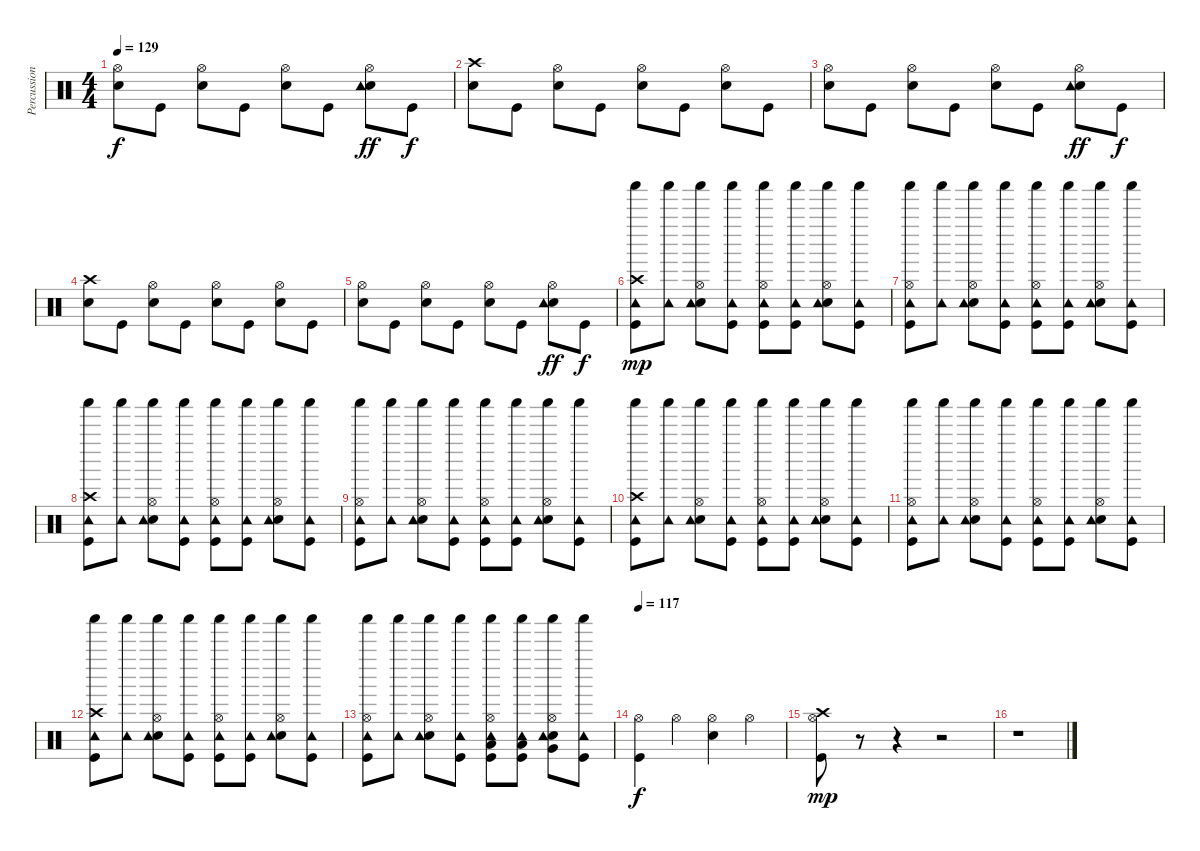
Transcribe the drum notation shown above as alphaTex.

\track ("Percussion" "Percussion") {instrument percussion}
\staff {score}
\articulation defaults
\ts (4 4)
\tempo 129
\clef neutral
\ks c
("Hi-Hat (open)" "Snare (hit) 2").8{dy f} "Kick (hit)".8 ("Hi-Hat (open)" "Snare (hit) 2").8 "Kick (hit)".8 ("Hi-Hat (open)" "Snare (hit) 2").8 "Kick (hit)".8 ("Hi-Hat (open)" "Snare (hit) 2" "Tambourine (hit)").8{dy ff} "Kick (hit)".8{dy f} |
("Crash high (hit)" "Snare (hit) 2").8 "Kick (hit)".8 ("Hi-Hat (open)" "Snare (hit) 2").8 "Kick (hit)".8 ("Hi-Hat (open)" "Snare (hit) 2").8 "Kick (hit)".8 ("Hi-Hat (open)" "Snare (hit) 2").8 "Kick (hit)".8 |
("Hi-Hat (open)" "Snare (hit) 2").8 "Kick (hit)".8 ("Hi-Hat (open)" "Snare (hit) 2").8 "Kick (hit)".8 ("Hi-Hat (open)" "Snare (hit) 2").8 "Kick (hit)".8 ("Hi-Hat (open)" "Snare (hit) 2" "Tambourine (hit)").8{dy ff} "Kick (hit)".8{dy f} |
("Crash high (hit)" "Snare (hit) 2").8 "Kick (hit)".8 ("Hi-Hat (open)" "Snare (hit) 2").8 "Kick (hit)".8 ("Hi-Hat (open)" "Snare (hit) 2").8 "Kick (hit)".8 ("Hi-Hat (open)" "Snare (hit) 2").8 "Kick (hit)".8 |
("Hi-Hat (open)" "Snare (hit) 2").8 "Kick (hit)".8 ("Hi-Hat (open)" "Snare (hit) 2").8 "Kick (hit)".8 ("Hi-Hat (open)" "Snare (hit) 2").8 "Kick (hit)".8 ("Hi-Hat (open)" "Snare (hit) 2" "Tambourine (hit)").8{dy ff} "Kick (hit)".8{dy f} |
("Crash high (hit)" "Shaker (hit)" "Tambourine (hit)" "Kick (hit)").8{dy mp} ("Shaker (hit)" "Tambourine (hit)").8 ("Shaker (hit)" "Hi-Hat (open)" "Snare (hit) 2" "Tambourine (hit)").8 ("Shaker (hit)" "Tambourine (hit)" "Kick (hit)").8 ("Shaker (hit)" "Hi-Hat (open)" "Tambourine (hit)" "Kick (hit)").8 ("Shaker (hit)" "Tambourine (hit)" "Kick (hit)").8 ("Shaker (hit)" "Hi-Hat (open)" "Snare (hit) 2" "Tambourine (hit)").8 ("Shaker (hit)" "Tambourine (hit)" "Kick (hit)").8 |
("Shaker (hit)" "Hi-Hat (open)" "Tambourine (hit)" "Kick (hit)").8 ("Shaker (hit)" "Tambourine (hit)").8 ("Shaker (hit)" "Hi-Hat (open)" "Snare (hit) 2" "Tambourine (hit)").8 ("Shaker (hit)" "Tambourine (hit)" "Kick (hit)").8 ("Shaker (hit)" "Hi-Hat (open)" "Tambourine (hit)" "Kick (hit)").8 ("Shaker (hit)" "Tambourine (hit)" "Kick (hit)").8 ("Shaker (hit)" "Hi-Hat (open)" "Snare (hit) 2" "Tambourine (hit)").8 ("Shaker (hit)" "Tambourine (hit)" "Kick (hit)").8 |
("Crash high (hit)" "Shaker (hit)" "Tambourine (hit)" "Kick (hit)").8 ("Shaker (hit)" "Tambourine (hit)").8 ("Shaker (hit)" "Hi-Hat (open)" "Snare (hit) 2" "Tambourine (hit)").8 ("Shaker (hit)" "Tambourine (hit)" "Kick (hit)").8 ("Shaker (hit)" "Hi-Hat (open)" "Tambourine (hit)" "Kick (hit)").8 ("Shaker (hit)" "Tambourine (hit)" "Kick (hit)").8 ("Shaker (hit)" "Hi-Hat (open)" "Snare (hit) 2" "Tambourine (hit)").8 ("Shaker (hit)" "Tambourine (hit)" "Kick (hit)").8 |
("Shaker (hit)" "Hi-Hat (open)" "Tambourine (hit)" "Kick (hit)").8 ("Shaker (hit)" "Tambourine (hit)").8 ("Shaker (hit)" "Hi-Hat (open)" "Snare (hit) 2" "Tambourine (hit)").8 ("Shaker (hit)" "Tambourine (hit)" "Kick (hit)").8 ("Shaker (hit)" "Hi-Hat (open)" "Tambourine (hit)" "Kick (hit)").8 ("Shaker (hit)" "Tambourine (hit)" "Kick (hit)").8 ("Shaker (hit)" "Hi-Hat (open)" "Snare (hit) 2" "Tambourine (hit)").8 ("Shaker (hit)" "Tambourine (hit)" "Kick (hit)").8 |
("Crash high (hit)" "Shaker (hit)" "Tambourine (hit)" "Kick (hit)").8 ("Shaker (hit)" "Tambourine (hit)").8 ("Shaker (hit)" "Hi-Hat (open)" "Snare (hit) 2" "Tambourine (hit)").8 ("Shaker (hit)" "Tambourine (hit)" "Kick (hit)").8 ("Shaker (hit)" "Hi-Hat (open)" "Tambourine (hit)" "Kick (hit)").8 ("Shaker (hit)" "Tambourine (hit)" "Kick (hit)").8 ("Shaker (hit)" "Hi-Hat (open)" "Snare (hit) 2" "Tambourine (hit)").8 ("Shaker (hit)" "Tambourine (hit)" "Kick (hit)").8 |
("Shaker (hit)" "Hi-Hat (open)" "Tambourine (hit)" "Kick (hit)").8 ("Shaker (hit)" "Tambourine (hit)").8 ("Shaker (hit)" "Hi-Hat (open)" "Snare (hit) 2" "Tambourine (hit)").8 ("Shaker (hit)" "Tambourine (hit)" "Kick (hit)").8 ("Shaker (hit)" "Hi-Hat (open)" "Tambourine (hit)" "Kick (hit)").8 ("Shaker (hit)" "Tambourine (hit)" "Kick (hit)").8 ("Shaker (hit)" "Hi-Hat (open)" "Snare (hit) 2" "Tambourine (hit)").8 ("Shaker (hit)" "Tambourine (hit)" "Kick (hit)").8 |
("Crash high (hit)" "Shaker (hit)" "Tambourine (hit)" "Kick (hit)").8 ("Shaker (hit)" "Tambourine (hit)").8 ("Shaker (hit)" "Hi-Hat (open)" "Snare (hit) 2" "Tambourine (hit)").8 ("Shaker (hit)" "Tambourine (hit)" "Kick (hit)").8 ("Shaker (hit)" "Hi-Hat (open)" "Tambourine (hit)" "Kick (hit)").8 ("Shaker (hit)" "Tambourine (hit)" "Kick (hit)").8 ("Shaker (hit)" "Hi-Hat (open)" "Snare (hit) 2" "Tambourine (hit)").8 ("Shaker (hit)" "Tambourine (hit)" "Kick (hit)").8 |
("Shaker (hit)" "Hi-Hat (open)" "Tambourine (hit)" "Kick (hit)").8 ("Shaker (hit)" "Tambourine (hit)").8 ("Shaker (hit)" "Hi-Hat (open)" "Snare (hit) 2" "Tambourine (hit)").8 ("Shaker (hit)" "Tambourine (hit)" "Kick (hit)").8 ("Low Tom (hit)" "Shaker (hit)" "Hi-Hat (open)" "Tambourine (hit)" "Kick (hit)").8 ("Low Tom (hit)" "Shaker (hit)" "Tambourine (hit)" "Kick (hit)").8 ("Very Low Tom (hit)" "Shaker (hit)" "Hi-Hat (open)" "Snare (hit) 2" "Tambourine (hit)").8 ("Shaker (hit)" "Tambourine (hit)" "Kick (hit)").8 |
\tempo 117
("Hi-Hat (open)" "Kick (hit)").4{dy f} "Hi-Hat (open)".4 ("Hi-Hat (open)" "Snare (hit) 2").4 "Hi-Hat (open)".4 |
("Crash high (hit)" "Hi-Hat (open)" "Kick (hit)").8{dy mp} r.8 r.4 r.2 |
r.1
